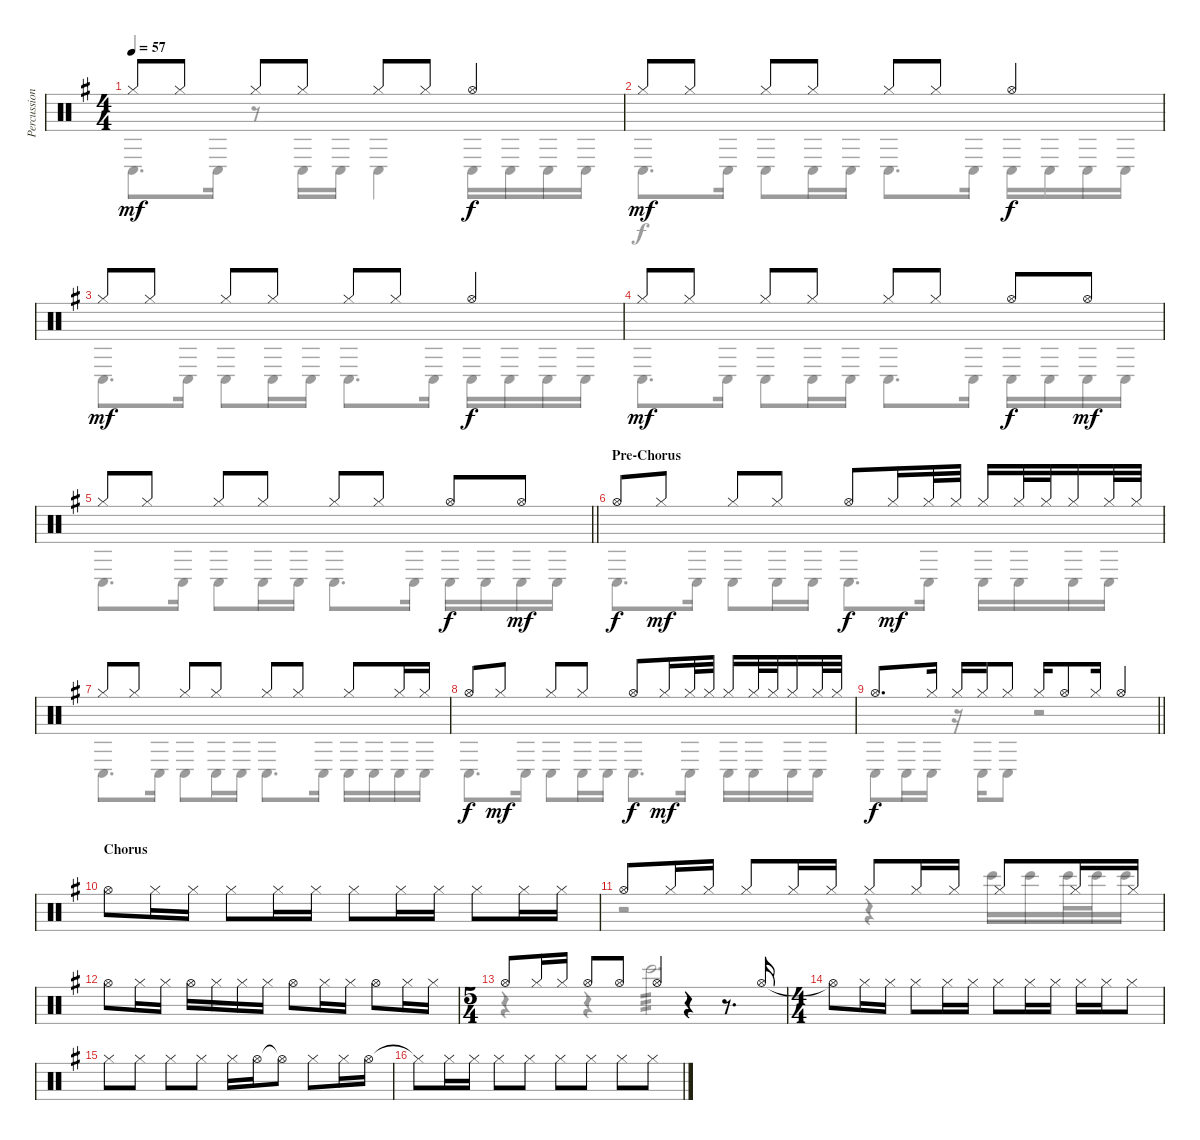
\track ("Percussion 1" "Percussion") {instrument percussion}
\staff {score}
\articulation defaults
\voice
\ts (4 4)
\tempo 57
\clef neutral
\ks g "Hi-Hat (closed)".8{dy mf} "Hi-Hat (closed)".8 "Hi-Hat (closed)".8 "Hi-Hat (closed)".8 "Hi-Hat (closed)".8 "Hi-Hat (closed)".8 "Hi-Hat (open)".4{dy f}
|
"Hi-Hat (closed)".8{dy mf} "Hi-Hat (closed)".8 "Hi-Hat (closed)".8 "Hi-Hat (closed)".8 "Hi-Hat (closed)".8 "Hi-Hat (closed)".8 "Hi-Hat (open)".4{dy f} |
"Hi-Hat (closed)".8{dy mf} "Hi-Hat (closed)".8 "Hi-Hat (closed)".8 "Hi-Hat (closed)".8 "Hi-Hat (closed)".8 "Hi-Hat (closed)".8 "Hi-Hat (open)".4{dy f} |
"Hi-Hat (closed)".8{dy mf} "Hi-Hat (closed)".8 "Hi-Hat (closed)".8 "Hi-Hat (closed)".8 "Hi-Hat (closed)".8 "Hi-Hat (closed)".8 "Hi-Hat (open)".8{dy f} "Hi-Hat (open)".8{dy mf} |
\barLineRight lightlight "Hi-Hat (closed)".8 "Hi-Hat (closed)".8 "Hi-Hat (closed)".8 "Hi-Hat (closed)".8 "Hi-Hat (closed)".8 "Hi-Hat (closed)".8 "Hi-Hat (open)".8{dy f} "Hi-Hat (open)".8{dy mf}
|
\section ("" "Pre-Chorus")
"Hi-Hat (open)".8{dy f} "Hi-Hat (closed)".8{dy mf} "Hi-Hat (closed)".8 "Hi-Hat (closed)".8 "Hi-Hat (open)".8{dy f} "Hi-Hat (closed)".16{dy mf} "Hi-Hat (closed)".32 "Hi-Hat (closed)".32 "Hi-Hat (closed)".16 "Hi-Hat (closed)".32 "Hi-Hat (closed)".32 "Hi-Hat (closed)".16 "Hi-Hat (closed)".32 "Hi-Hat (closed)".32 |
"Hi-Hat (closed)".8 "Hi-Hat (closed)".8 "Hi-Hat (closed)".8 "Hi-Hat (closed)".8 "Hi-Hat (closed)".8 "Hi-Hat (closed)".8 "Hi-Hat (closed)".8 "Hi-Hat (closed)".16 "Hi-Hat (closed)".16 |
"Hi-Hat (open)".8{dy f} "Hi-Hat (closed)".8{dy mf} "Hi-Hat (closed)".8 "Hi-Hat (closed)".8 "Hi-Hat (open)".8{dy f} "Hi-Hat (closed)".16{dy mf} "Hi-Hat (closed)".32 "Hi-Hat (closed)".32 "Hi-Hat (closed)".16 "Hi-Hat (closed)".32 "Hi-Hat (closed)".32 "Hi-Hat (closed)".16 "Hi-Hat (closed)".32 "Hi-Hat (closed)".32 |
\barLineRight lightlight "Hi-Hat (open)".8{d dy f} "Hi-Hat (closed)".16 "Hi-Hat (closed)".16 "Hi-Hat (closed)".16 "Hi-Hat (closed)".8 "Hi-Hat (closed)".16 "Hi-Hat (open)".8 "Hi-Hat (closed)".16 "Hi-Hat (open)".4
|
\section ("" "Chorus")
"Hi-Hat (open)".8 "Hi-Hat (closed)".16 "Hi-Hat (closed)".16 "Hi-Hat (closed)".8 "Hi-Hat (closed)".16 "Hi-Hat (closed)".16 "Hi-Hat (closed)".8 "Hi-Hat (closed)".16 "Hi-Hat (closed)".16 "Hi-Hat (closed)".8 "Hi-Hat (closed)".16 "Hi-Hat (closed)".16 |
"Hi-Hat (open)".8 "Hi-Hat (closed)".16 "Hi-Hat (closed)".16 "Hi-Hat (closed)".8 "Hi-Hat (closed)".16 "Hi-Hat (closed)".16 "Hi-Hat (closed)".8 "Hi-Hat (closed)".16 "Hi-Hat (closed)".16 "Hi-Hat (closed)".8 "Hi-Hat (closed)".16 "Hi-Hat (closed)".16 |
"Hi-Hat (open)".8 "Hi-Hat (closed)".16 "Hi-Hat (closed)".16 "Hi-Hat (open)".16 "Hi-Hat (closed)".16 "Hi-Hat (closed)".16 "Hi-Hat (closed)".16 "Hi-Hat (open)".8 "Hi-Hat (closed)".16 "Hi-Hat (closed)".16 "Hi-Hat (open)".8 "Hi-Hat (closed)".16 "Hi-Hat (closed)".16 |
\ts (5 4)
"Hi-Hat (open)".8 "Hi-Hat (closed)".16 "Hi-Hat (closed)".16 "Hi-Hat (open)".8 "Hi-Hat (open)".8 "Hi-Hat (open)".4 r.4 r.8{d} "Hi-Hat (open)".16 |
\ts (4 4)
"Hi-Hat (open)"{t}.8 "Hi-Hat (closed)".16 "Hi-Hat (closed)".16 "Hi-Hat (closed)".8 "Hi-Hat (closed)".16 "Hi-Hat (closed)".16 "Hi-Hat (closed)".8 "Hi-Hat (closed)".16 "Hi-Hat (closed)".16 "Hi-Hat (closed)".16 "Hi-Hat (closed)".16 "Hi-Hat (closed)".8 |
"Hi-Hat (closed)".8 "Hi-Hat (closed)".8 "Hi-Hat (closed)".8 "Hi-Hat (closed)".8 "Hi-Hat (closed)".16 "Hi-Hat (open)".16 "Hi-Hat (open)"{t}.8 "Hi-Hat (closed)".8 "Hi-Hat (closed)".16 "Hi-Hat (open)".16 |
"Hi-Hat (closed)"{t}.8 "Hi-Hat (closed)".16 "Hi-Hat (closed)".16 "Hi-Hat (closed)".8 "Hi-Hat (closed)".8 "Hi-Hat (closed)".8 "Hi-Hat (closed)".8 "Hi-Hat (closed)".8 "Hi-Hat (closed)".8
\voice
\clef neutral
\ottava regular
\simile none
\ks g "Conga low (hit)".8{d dy mf} "Conga low (hit)".16
r.8 "Conga low (hit)".16 "Conga low (hit)".16 "Conga low (hit)".4 "Conga low (hit)".16 "Conga low (hit)".16 "Conga low (hit)".16 "Conga low (hit)".16 |
"Conga low (hit)".8{d dy f} "Conga low (hit)".16 "Conga low (hit)".8 "Conga low (hit)".16 "Conga low (hit)".16 "Conga low (hit)".8{d} "Conga low (hit)".16 "Conga low (hit)".16 "Conga low (hit)".16 "Conga low (hit)".16 "Conga low (hit)".16 |
"Conga low (hit)".8{d} "Conga low (hit)".16 "Conga low (hit)".8 "Conga low (hit)".16 "Conga low (hit)".16 "Conga low (hit)".8{d} "Conga low (hit)".16 "Conga low (hit)".16 "Conga low (hit)".16 "Conga low (hit)".16 "Conga low (hit)".16 |
"Conga low (hit)".8{d} "Conga low (hit)".16 "Conga low (hit)".8 "Conga low (hit)".16 "Conga low (hit)".16 "Conga low (hit)".8{d} "Conga low (hit)".16 "Conga low (hit)".16 "Conga low (hit)".16 "Conga low (hit)".16 "Conga low (hit)".16 |
\barLineRight lightlight "Conga low (hit)".8{d} "Conga low (hit)".16 "Conga low (hit)".8 "Conga low (hit)".16 "Conga low (hit)".16 "Conga low (hit)".8{d} "Conga low (hit)".16 "Conga low (hit)".16 "Conga low (hit)".16 "Conga low (hit)".16 "Conga low (hit)".16
|
"Conga low (hit)".8{d} "Conga low (hit)".16 "Conga low (hit)".8 "Conga low (hit)".16 "Conga low (hit)".16 "Conga low (hit)".8{d} "Conga low (hit)".16 "Conga low (hit)".16 "Conga low (hit)".16 "Conga low (hit)".16 "Conga low (hit)".16 |
"Conga low (hit)".8{d} "Conga low (hit)".16 "Conga low (hit)".8 "Conga low (hit)".16 "Conga low (hit)".16 "Conga low (hit)".8{d} "Conga low (hit)".16 "Conga low (hit)".16 "Conga low (hit)".16 "Conga low (hit)".16 "Conga low (hit)".16 |
"Conga low (hit)".8{d} "Conga low (hit)".16 "Conga low (hit)".8 "Conga low (hit)".16 "Conga low (hit)".16 "Conga low (hit)".8{d} "Conga low (hit)".16 "Conga low (hit)".16 "Conga low (hit)".16 "Conga low (hit)".16 "Conga low (hit)".16 |
\barLineRight lightlight "Conga low (hit)".8 "Conga low (hit)".16 "Conga low (hit)".16
r.16 "Conga low (hit)".16 "Conga low (hit)".8 r.2 |
|
r.2 r.4 "Bongo High (hit)".16 "Bongo High (hit)".16 "Bongo High (hit)".32 "Bongo High (hit)".32 "Bongo High (hit)".16 |
|
r.4 r.4 "Bongo High (hit)".2{d tp 3} |
|
|
